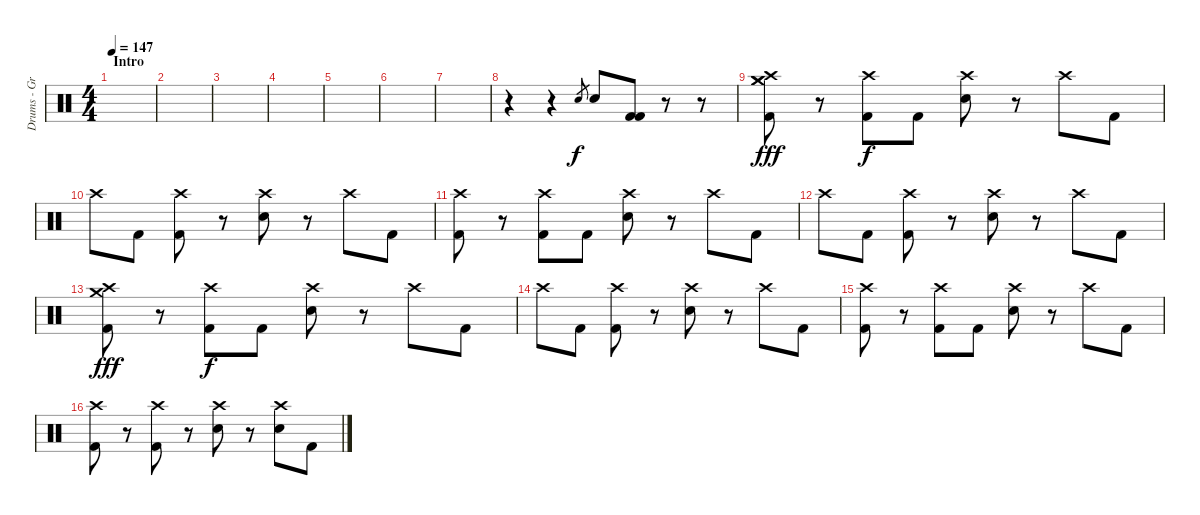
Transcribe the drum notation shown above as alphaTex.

\track ("Drums - Greg Upchurch" "Drums - Gr") {instrument percussion}
\staff {score}
\articulation defaults
\ts (4 4)
\section ("" "Intro")
\tempo 147
\clef neutral
\ks c
|
|
|
|
|
|
|
r.4 r.4 "Electric Snare (hit)".8{gr} "Electric Snare (hit)".8 ("Kick (hit) 2" "Kick (hit) 2").8 r.8 r.8 |
("Crash medium (hit)" "Crash medium (hit)" "Crash high (hit)" "Kick (hit) 2").8{dy fff} r.8 ("Crash high (hit)" "Kick (hit) 2").8{dy f} "Kick (hit) 2".8 ("Crash high (hit)" "Electric Snare (hit)").8 r.8 "Crash high (hit)".8 "Kick (hit) 2".8 |
"Crash high (hit)".8 "Kick (hit) 2".8 ("Crash high (hit)" "Kick (hit) 2").8 r.8 ("Crash high (hit)" "Electric Snare (hit)").8 r.8 "Crash high (hit)".8 "Kick (hit) 2".8 |
("Crash high (hit)" "Kick (hit) 2").8 r.8 ("Crash high (hit)" "Kick (hit) 2").8 "Kick (hit) 2".8 ("Crash high (hit)" "Electric Snare (hit)").8 r.8 "Crash high (hit)".8 "Kick (hit) 2".8 |
"Crash high (hit)".8 "Kick (hit) 2".8 ("Crash high (hit)" "Kick (hit) 2").8 r.8 ("Crash high (hit)" "Electric Snare (hit)").8 r.8 "Crash high (hit)".8 "Kick (hit) 2".8 |
("Crash medium (hit)" "Crash high (hit)" "Kick (hit) 2").8{dy fff} r.8 ("Crash high (hit)" "Kick (hit) 2").8{dy f} "Kick (hit) 2".8 ("Crash high (hit)" "Electric Snare (hit)").8 r.8 "Crash high (hit)".8 "Kick (hit) 2".8 |
"Crash high (hit)".8 "Kick (hit) 2".8 ("Crash high (hit)" "Kick (hit) 2").8 r.8 ("Crash high (hit)" "Electric Snare (hit)").8 r.8 "Crash high (hit)".8 "Kick (hit) 2".8 |
("Crash high (hit)" "Kick (hit) 2").8 r.8 ("Crash high (hit)" "Kick (hit) 2").8 "Kick (hit) 2".8 ("Crash high (hit)" "Electric Snare (hit)").8 r.8 "Crash high (hit)".8 "Kick (hit) 2".8 |
("Crash high (hit)" "Kick (hit) 2").8 r.8 ("Crash high (hit)" "Kick (hit) 2").8 r.8 ("Crash high (hit)" "Electric Snare (hit)").8 r.8 ("Crash high (hit)" "Electric Snare (hit)").8 "Kick (hit) 2".8
